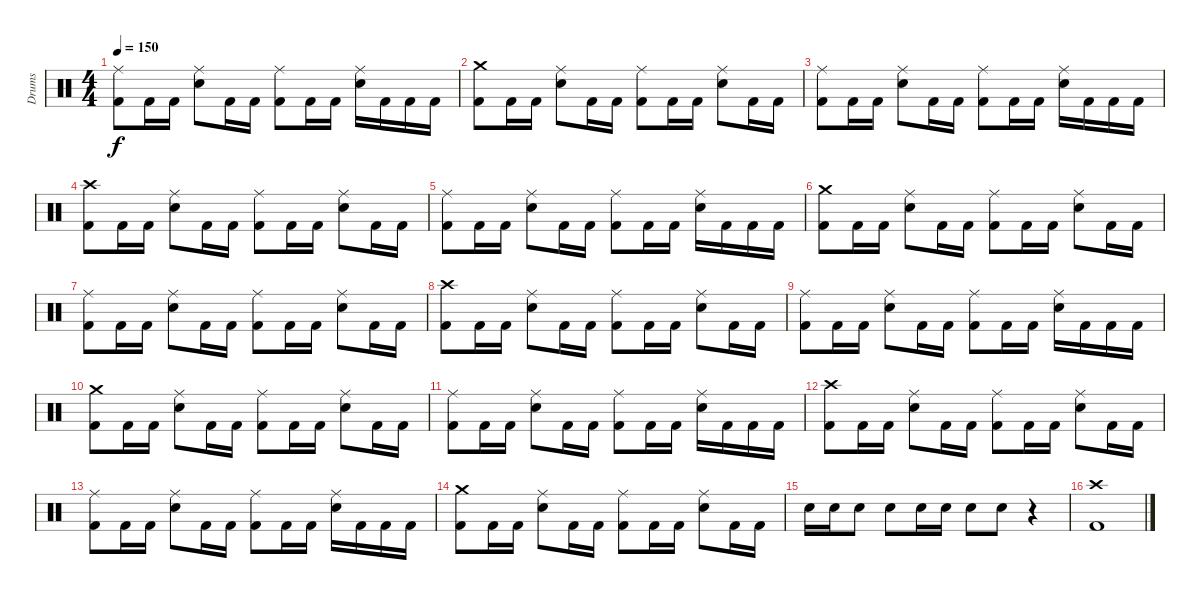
\track ("Drums" "Drums") {instrument percussion}
\staff {score}
\articulation defaults
\ts (4 4)
\tempo 150
\clef neutral
\ks c
("Ride (middle)" "Kick (hit) 2").8{dy f} "Kick (hit) 2".16 "Kick (hit) 2".16 ("Ride (middle)" "Snare (hit) 2").8 "Kick (hit) 2".16 "Kick (hit) 2".16 ("Ride (middle)" "Kick (hit) 2").8 "Kick (hit) 2".16 "Kick (hit) 2".16 ("Ride (middle)" "Snare (hit) 2").16 "Kick (hit) 2".16 "Kick (hit) 2".16 "Kick (hit) 2".16 |
("Crash medium (hit)" "Kick (hit) 2").8 "Kick (hit) 2".16 "Kick (hit) 2".16 ("Ride (middle)" "Snare (hit) 2").8 "Kick (hit) 2".16 "Kick (hit) 2".16 ("Ride (middle)" "Kick (hit) 2").8 "Kick (hit) 2".16 "Kick (hit) 2".16 ("Ride (middle)" "Snare (hit) 2").8 "Kick (hit) 2".16 "Kick (hit) 2".16 |
("Ride (middle)" "Kick (hit) 2").8 "Kick (hit) 2".16 "Kick (hit) 2".16 ("Ride (middle)" "Snare (hit) 2").8 "Kick (hit) 2".16 "Kick (hit) 2".16 ("Ride (middle)" "Kick (hit) 2").8 "Kick (hit) 2".16 "Kick (hit) 2".16 ("Ride (middle)" "Snare (hit) 2").16 "Kick (hit) 2".16 "Kick (hit) 2".16 "Kick (hit) 2".16 |
("Crash high (hit)" "Kick (hit) 2").8 "Kick (hit) 2".16 "Kick (hit) 2".16 ("Ride (middle)" "Snare (hit) 2").8 "Kick (hit) 2".16 "Kick (hit) 2".16 ("Ride (middle)" "Kick (hit) 2").8 "Kick (hit) 2".16 "Kick (hit) 2".16 ("Ride (middle)" "Snare (hit) 2").8 "Kick (hit) 2".16 "Kick (hit) 2".16 |
("Ride (middle)" "Kick (hit) 2").8 "Kick (hit) 2".16 "Kick (hit) 2".16 ("Ride (middle)" "Snare (hit) 2").8 "Kick (hit) 2".16 "Kick (hit) 2".16 ("Ride (middle)" "Kick (hit) 2").8 "Kick (hit) 2".16 "Kick (hit) 2".16 ("Ride (middle)" "Snare (hit) 2").16 "Kick (hit) 2".16 "Kick (hit) 2".16 "Kick (hit) 2".16 |
("Crash medium (hit)" "Kick (hit) 2").8 "Kick (hit) 2".16 "Kick (hit) 2".16 ("Ride (middle)" "Snare (hit) 2").8 "Kick (hit) 2".16 "Kick (hit) 2".16 ("Ride (middle)" "Kick (hit) 2").8 "Kick (hit) 2".16 "Kick (hit) 2".16 ("Ride (middle)" "Snare (hit) 2").8 "Kick (hit) 2".16 "Kick (hit) 2".16 |
("Ride (middle)" "Kick (hit) 2").8 "Kick (hit) 2".16 "Kick (hit) 2".16 ("Ride (middle)" "Snare (hit) 2").8 "Kick (hit) 2".16 "Kick (hit) 2".16 ("Ride (middle)" "Kick (hit) 2").8 "Kick (hit) 2".16 "Kick (hit) 2".16 ("Ride (middle)" "Snare (hit) 2").8 "Kick (hit) 2".16 "Kick (hit) 2".16 |
("Crash high (hit)" "Kick (hit) 2").8 "Kick (hit) 2".16 "Kick (hit) 2".16 ("Ride (middle)" "Snare (hit) 2").8 "Kick (hit) 2".16 "Kick (hit) 2".16 ("Ride (middle)" "Kick (hit) 2").8 "Kick (hit) 2".16 "Kick (hit) 2".16 ("Ride (middle)" "Snare (hit) 2").8 "Kick (hit) 2".16 "Kick (hit) 2".16 |
("Ride (middle)" "Kick (hit) 2").8 "Kick (hit) 2".16 "Kick (hit) 2".16 ("Ride (middle)" "Snare (hit) 2").8 "Kick (hit) 2".16 "Kick (hit) 2".16 ("Ride (middle)" "Kick (hit) 2").8 "Kick (hit) 2".16 "Kick (hit) 2".16 ("Ride (middle)" "Snare (hit) 2").16 "Kick (hit) 2".16 "Kick (hit) 2".16 "Kick (hit) 2".16 |
("Crash medium (hit)" "Kick (hit) 2").8 "Kick (hit) 2".16 "Kick (hit) 2".16 ("Ride (middle)" "Snare (hit) 2").8 "Kick (hit) 2".16 "Kick (hit) 2".16 ("Ride (middle)" "Kick (hit) 2").8 "Kick (hit) 2".16 "Kick (hit) 2".16 ("Ride (middle)" "Snare (hit) 2").8 "Kick (hit) 2".16 "Kick (hit) 2".16 |
("Ride (middle)" "Kick (hit) 2").8 "Kick (hit) 2".16 "Kick (hit) 2".16 ("Ride (middle)" "Snare (hit) 2").8 "Kick (hit) 2".16 "Kick (hit) 2".16 ("Ride (middle)" "Kick (hit) 2").8 "Kick (hit) 2".16 "Kick (hit) 2".16 ("Ride (middle)" "Snare (hit) 2").16 "Kick (hit) 2".16 "Kick (hit) 2".16 "Kick (hit) 2".16 |
("Crash high (hit)" "Kick (hit) 2").8 "Kick (hit) 2".16 "Kick (hit) 2".16 ("Ride (middle)" "Snare (hit) 2").8 "Kick (hit) 2".16 "Kick (hit) 2".16 ("Ride (middle)" "Kick (hit) 2").8 "Kick (hit) 2".16 "Kick (hit) 2".16 ("Ride (middle)" "Snare (hit) 2").8 "Kick (hit) 2".16 "Kick (hit) 2".16 |
("Ride (middle)" "Kick (hit) 2").8 "Kick (hit) 2".16 "Kick (hit) 2".16 ("Ride (middle)" "Snare (hit) 2").8 "Kick (hit) 2".16 "Kick (hit) 2".16 ("Ride (middle)" "Kick (hit) 2").8 "Kick (hit) 2".16 "Kick (hit) 2".16 ("Ride (middle)" "Snare (hit) 2").16 "Kick (hit) 2".16 "Kick (hit) 2".16 "Kick (hit) 2".16 |
("Crash medium (hit)" "Kick (hit) 2").8 "Kick (hit) 2".16 "Kick (hit) 2".16 ("Ride (middle)" "Snare (hit) 2").8 "Kick (hit) 2".16 "Kick (hit) 2".16 ("Ride (middle)" "Kick (hit) 2").8 "Kick (hit) 2".16 "Kick (hit) 2".16 ("Ride (middle)" "Snare (hit) 2").8 "Kick (hit) 2".16 "Kick (hit) 2".16 |
"Snare (hit) 2".16 "Snare (hit) 2".16 "Snare (hit) 2".8 "Snare (hit) 2".8 "Snare (hit) 2".16 "Snare (hit) 2".16 "Snare (hit) 2".8 "Snare (hit) 2".8 r.4 |
("Crash high (hit)" "Kick (hit) 2").1
